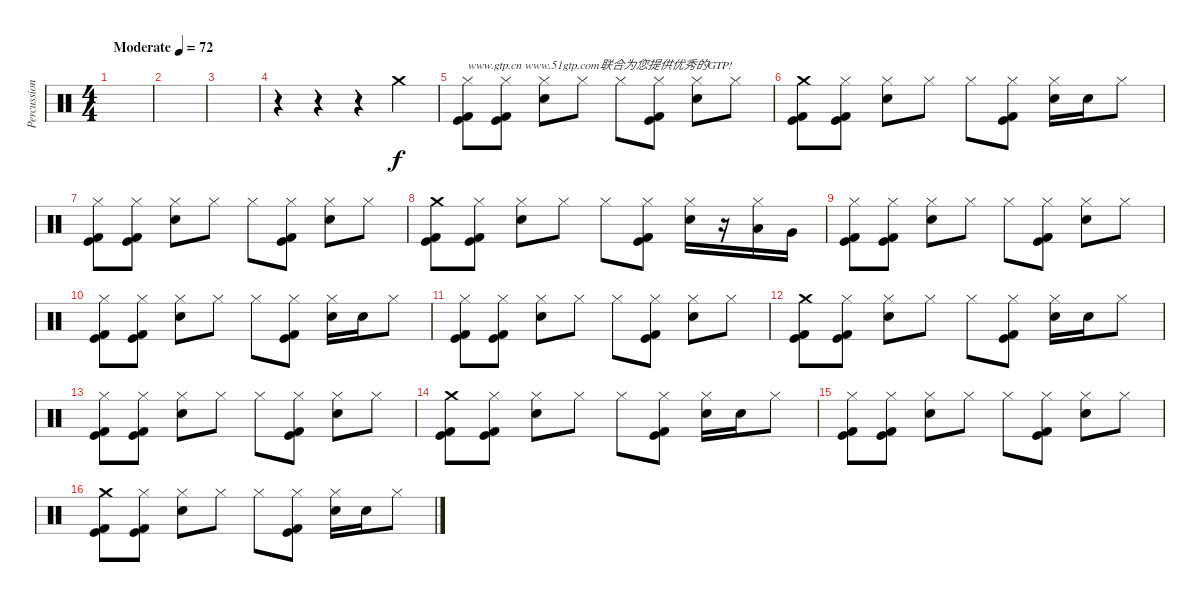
\track ("Percussion" "Percussion") {instrument percussion}
\staff {score}
\articulation defaults
\ts (4 4)
\tempo (72 "Moderate")
\clef neutral
\ks c
|
|
|
r.4 r.4 r.4 "Crash medium (hit)".4 |
("Hi-Hat (closed)" "Kick (hit)" "Kick (hit) 2").8{txt "www.gtp.cn www.51gtp.com联合为您提供优秀的GTP!"} ("Hi-Hat (closed)" "Kick (hit)" "Kick (hit) 2").8 ("Hi-Hat (closed)" "Snare (hit) 2").8 "Hi-Hat (closed)".8 "Hi-Hat (closed)".8 ("Hi-Hat (closed)" "Kick (hit)" "Kick (hit) 2").8 ("Hi-Hat (closed)" "Snare (hit) 2").8 "Hi-Hat (closed)".8 |
("Crash medium (hit)" "Kick (hit)" "Kick (hit) 2").8 ("Hi-Hat (closed)" "Kick (hit)" "Kick (hit) 2").8 ("Hi-Hat (closed)" "Snare (hit) 2").8 "Hi-Hat (closed)".8 "Hi-Hat (closed)".8 ("Hi-Hat (closed)" "Kick (hit)" "Kick (hit) 2").8 ("Hi-Hat (closed)" "Snare (hit) 2").16 "Snare (hit) 2".16 "Hi-Hat (closed)".8 |
("Hi-Hat (closed)" "Kick (hit)" "Kick (hit) 2").8 ("Hi-Hat (closed)" "Kick (hit)" "Kick (hit) 2").8 ("Hi-Hat (closed)" "Snare (hit) 2").8 "Hi-Hat (closed)".8 "Hi-Hat (closed)".8 ("Hi-Hat (closed)" "Kick (hit)" "Kick (hit) 2").8 ("Hi-Hat (closed)" "Snare (hit) 2").8 "Hi-Hat (closed)".8 |
("Crash medium (hit)" "Kick (hit)" "Kick (hit) 2").8 ("Hi-Hat (closed)" "Kick (hit)" "Kick (hit) 2").8 ("Hi-Hat (closed)" "Snare (hit) 2").8 "Hi-Hat (closed)".8 "Hi-Hat (closed)".8 ("Hi-Hat (closed)" "Kick (hit)" "Kick (hit) 2").8 ("Hi-Hat (closed)" "Snare (hit) 2").16 r.16 ("Hi-Hat (closed)" "Low Tom (hit)").16 "Very Low Tom (hit)".16 |
("Hi-Hat (closed)" "Kick (hit)" "Kick (hit) 2").8 ("Hi-Hat (closed)" "Kick (hit)" "Kick (hit) 2").8 ("Hi-Hat (closed)" "Snare (hit) 2").8 "Hi-Hat (closed)".8 "Hi-Hat (closed)".8 ("Hi-Hat (closed)" "Kick (hit)" "Kick (hit) 2").8 ("Hi-Hat (closed)" "Snare (hit) 2").8 "Hi-Hat (closed)".8 |
("Hi-Hat (closed)" "Kick (hit)" "Kick (hit) 2").8 ("Hi-Hat (closed)" "Kick (hit)" "Kick (hit) 2").8 ("Hi-Hat (closed)" "Snare (hit) 2").8 "Hi-Hat (closed)".8 "Hi-Hat (closed)".8 ("Hi-Hat (closed)" "Kick (hit)" "Kick (hit) 2").8 ("Hi-Hat (closed)" "Snare (hit) 2").16 "Snare (hit) 2".16 "Hi-Hat (closed)".8 |
("Hi-Hat (closed)" "Kick (hit)" "Kick (hit) 2").8 ("Hi-Hat (closed)" "Kick (hit)" "Kick (hit) 2").8 ("Hi-Hat (closed)" "Snare (hit) 2").8 "Hi-Hat (closed)".8 "Hi-Hat (closed)".8 ("Hi-Hat (closed)" "Kick (hit)" "Kick (hit) 2").8 ("Hi-Hat (closed)" "Snare (hit) 2").8 "Hi-Hat (closed)".8 |
("Crash medium (hit)" "Kick (hit)" "Kick (hit) 2").8 ("Hi-Hat (closed)" "Kick (hit)" "Kick (hit) 2").8 ("Hi-Hat (closed)" "Snare (hit) 2").8 "Hi-Hat (closed)".8 "Hi-Hat (closed)".8 ("Hi-Hat (closed)" "Kick (hit)" "Kick (hit) 2").8 ("Hi-Hat (closed)" "Snare (hit) 2").16 "Snare (hit) 2".16 "Hi-Hat (closed)".8 |
("Hi-Hat (closed)" "Kick (hit)" "Kick (hit) 2").8 ("Hi-Hat (closed)" "Kick (hit)" "Kick (hit) 2").8 ("Hi-Hat (closed)" "Snare (hit) 2").8 "Hi-Hat (closed)".8 "Hi-Hat (closed)".8 ("Hi-Hat (closed)" "Kick (hit)" "Kick (hit) 2").8 ("Hi-Hat (closed)" "Snare (hit) 2").8 "Hi-Hat (closed)".8 |
("Crash medium (hit)" "Kick (hit)" "Kick (hit) 2").8 ("Hi-Hat (closed)" "Kick (hit)" "Kick (hit) 2").8 ("Hi-Hat (closed)" "Snare (hit) 2").8 "Hi-Hat (closed)".8 "Hi-Hat (closed)".8 ("Hi-Hat (closed)" "Kick (hit)" "Kick (hit) 2").8 ("Hi-Hat (closed)" "Snare (hit) 2").16 "Snare (hit) 2".16 "Hi-Hat (closed)".8 |
("Hi-Hat (closed)" "Kick (hit)" "Kick (hit) 2").8 ("Hi-Hat (closed)" "Kick (hit)" "Kick (hit) 2").8 ("Hi-Hat (closed)" "Snare (hit) 2").8 "Hi-Hat (closed)".8 "Hi-Hat (closed)".8 ("Hi-Hat (closed)" "Kick (hit)" "Kick (hit) 2").8 ("Hi-Hat (closed)" "Snare (hit) 2").8 "Hi-Hat (closed)".8 |
("Crash medium (hit)" "Kick (hit)" "Kick (hit) 2").8 ("Hi-Hat (closed)" "Kick (hit)" "Kick (hit) 2").8 ("Hi-Hat (closed)" "Snare (hit) 2").8 "Hi-Hat (closed)".8 "Hi-Hat (closed)".8 ("Hi-Hat (closed)" "Kick (hit)" "Kick (hit) 2").8 ("Hi-Hat (closed)" "Snare (hit) 2").16 "Snare (hit) 2".16 "Hi-Hat (closed)".8
